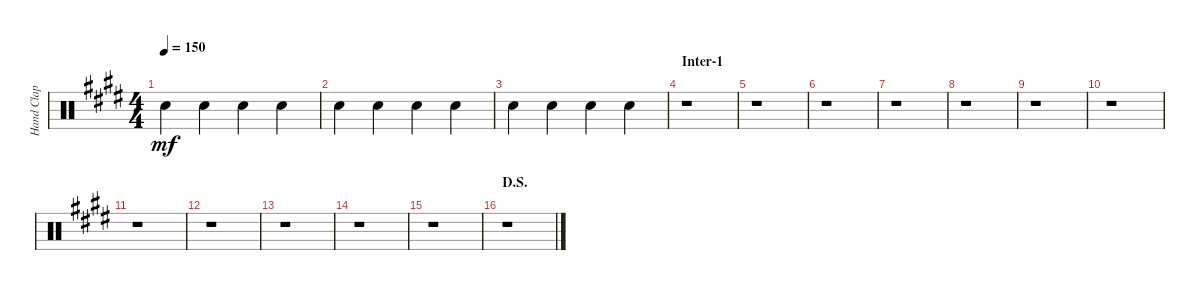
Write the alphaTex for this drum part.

\track ("Hand Clap" "Hand Clap") {instrument percussion}
\staff {score}
\articulation defaults
\ts (4 4)
\tempo 150
\clef neutral
\ks e "Hand Clap (hit)".4{dy mf} "Hand Clap (hit)".4 "Hand Clap (hit)".4 "Hand Clap (hit)".4
|
"Hand Clap (hit)".4 "Hand Clap (hit)".4 "Hand Clap (hit)".4 "Hand Clap (hit)".4 |
"Hand Clap (hit)".4 "Hand Clap (hit)".4 "Hand Clap (hit)".4 "Hand Clap (hit)".4 |
\section ("" "Inter-1")
r.1 |
r.1 |
r.1 |
r.1 |
r.1 |
r.1 |
r.1 |
r.1 |
r.1 |
r.1 |
r.1 |
r.1 |
\section ("" "D.S.")
r.1
